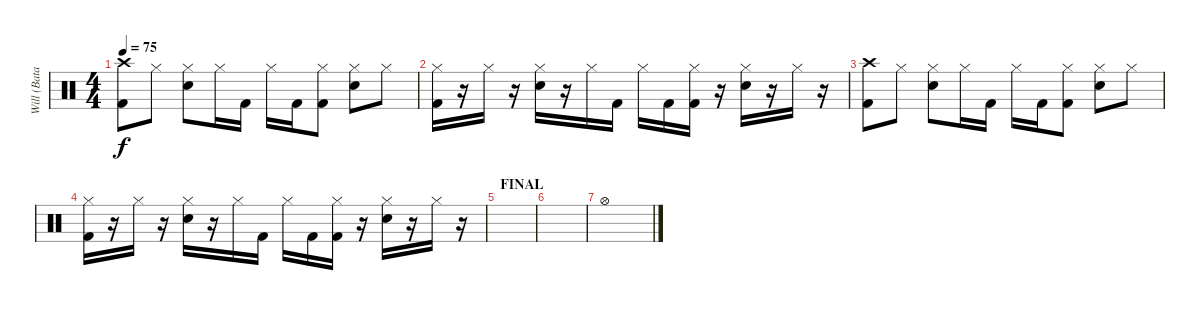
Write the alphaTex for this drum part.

\track ("Will (Bataca)" "Will (Bata") {instrument percussion}
\staff {score}
\articulation defaults
\ts (4 4)
\tempo 75
\clef neutral
\ks c
("Crash high (hit)" "Kick (hit) 2").8{dy f} "Hi-Hat (closed)".8 ("Hi-Hat (closed)" "Snare (hit) 2").8 "Hi-Hat (closed)".16 "Kick (hit) 2".16 "Hi-Hat (closed)".16 "Kick (hit) 2".16 ("Hi-Hat (closed)" "Kick (hit) 2").8 ("Hi-Hat (closed)" "Snare (hit) 2").8 "Hi-Hat (closed)".8 |
("Hi-Hat (closed)" "Kick (hit) 2").16 r.16 "Hi-Hat (closed)".16 r.16 ("Hi-Hat (closed)" "Snare (hit) 2").16 r.16 "Hi-Hat (closed)".16 "Kick (hit) 2".16 "Hi-Hat (closed)".16 "Kick (hit) 2".16 ("Hi-Hat (closed)" "Kick (hit) 2").16 r.16 ("Hi-Hat (closed)" "Snare (hit) 2").16 r.16 "Hi-Hat (closed)".16 r.16 |
("Crash high (hit)" "Kick (hit) 2").8 "Hi-Hat (closed)".8 ("Hi-Hat (closed)" "Snare (hit) 2").8 "Hi-Hat (closed)".16 "Kick (hit) 2".16 "Hi-Hat (closed)".16 "Kick (hit) 2".16 ("Hi-Hat (closed)" "Kick (hit) 2").8 ("Hi-Hat (closed)" "Snare (hit) 2").8 "Hi-Hat (closed)".8 |
("Hi-Hat (closed)" "Kick (hit) 2").16 r.16 "Hi-Hat (closed)".16 r.16 ("Hi-Hat (closed)" "Snare (hit) 2").16 r.16 "Hi-Hat (closed)".16 "Kick (hit) 2".16 "Hi-Hat (closed)".16 "Kick (hit) 2".16 ("Hi-Hat (closed)" "Kick (hit) 2").16 r.16 ("Hi-Hat (closed)" "Snare (hit) 2").16 r.16 "Hi-Hat (closed)".16 r.16 |
\section ("" "FINAL")
|
|
"Hi-Hat (open)".1
